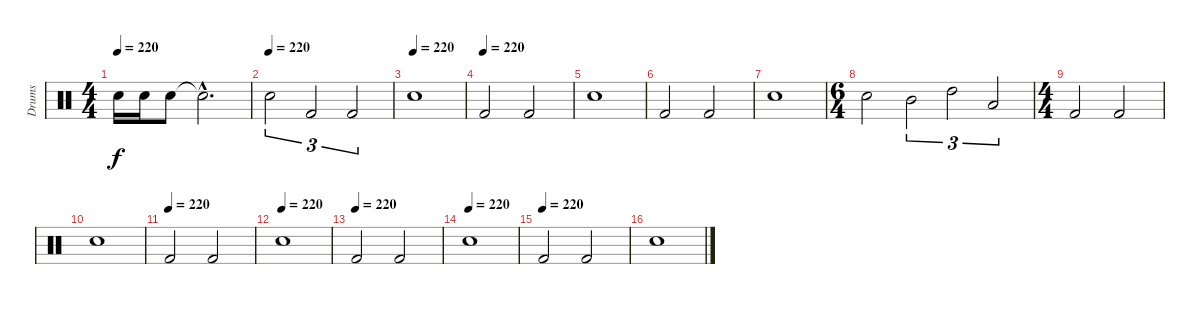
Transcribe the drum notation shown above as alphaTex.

\track ("Drums" "Drums") {instrument percussion}
\staff {score}
\articulation defaults
\ts (4 4)
\tempo 220
\clef neutral
\ks c "Snare (hit) 2".16{dy f} "Snare (hit) 2".16 "Electric Snare (hit)".8 "Snare (hit)"{hac t}.2{d}
|
\tempo (220)
"Electric Snare (hit)".2{tu (3 2)} "Kick (hit) 2".2{tu (3 2)} "Kick (hit) 2".2{tu (3 2)} |
\tempo (220)
"Electric Snare (hit)".1 |
\tempo (220)
"Kick (hit) 2".2 "Kick (hit) 2".2 |
"Electric Snare (hit)".1 |
"Kick (hit) 2".2 "Kick (hit) 2".2 |
"Electric Snare (hit)".1 |
\ts (6 4)
"Electric Snare (hit)".2 "Mid Tom (hit)".2{tu (3 2)} "High Tom (hit)".2{tu (3 2)} "Low Tom (hit)".2{tu (3 2)} |
\ts (4 4)
"Kick (hit) 2".2 "Kick (hit) 2".2 |
"Electric Snare (hit)".1 |
\tempo (220)
"Kick (hit) 2".2 "Kick (hit) 2".2 |
\tempo (220)
"Electric Snare (hit)".1 |
\tempo (220)
"Kick (hit) 2".2 "Kick (hit) 2".2 |
\tempo (220)
"Electric Snare (hit)".1 |
\tempo (220)
"Kick (hit) 2".2 "Kick (hit) 2".2 |
"Electric Snare (hit)".1
